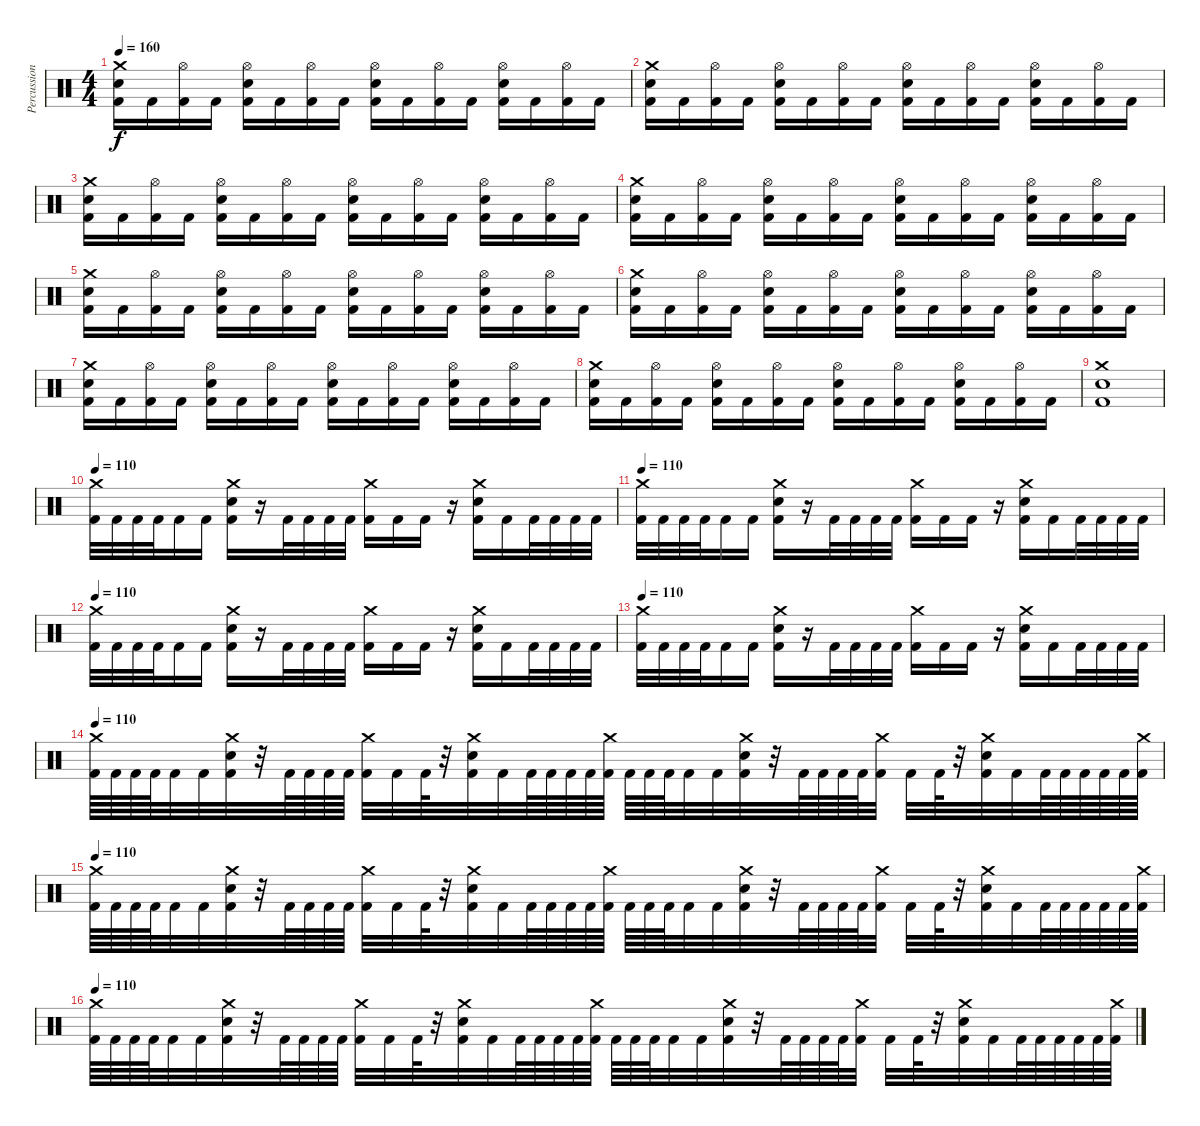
\track ("Percussion" "Percussion") {instrument percussion}
\staff {score}
\articulation defaults
\ts (4 4)
\tempo 160
\clef neutral
\ks c
("Crash medium (hit)" "Electric Snare (hit)" "Kick (hit) 2").16{dy f} "Kick (hit) 2".16 ("Hi-Hat (open)" "Kick (hit) 2").16 "Kick (hit) 2".16 ("Hi-Hat (open)" "Electric Snare (hit)" "Kick (hit) 2").16 "Kick (hit) 2".16 ("Hi-Hat (open)" "Kick (hit) 2").16 "Kick (hit) 2".16 ("Hi-Hat (open)" "Electric Snare (hit)" "Kick (hit) 2").16 "Kick (hit) 2".16 ("Hi-Hat (open)" "Kick (hit) 2").16 "Kick (hit) 2".16 ("Hi-Hat (open)" "Electric Snare (hit)" "Kick (hit) 2").16 "Kick (hit) 2".16 ("Hi-Hat (open)" "Kick (hit) 2").16 "Kick (hit) 2".16 |
("Crash medium (hit)" "Electric Snare (hit)" "Kick (hit) 2").16 "Kick (hit) 2".16 ("Hi-Hat (open)" "Kick (hit) 2").16 "Kick (hit) 2".16 ("Hi-Hat (open)" "Electric Snare (hit)" "Kick (hit) 2").16 "Kick (hit) 2".16 ("Hi-Hat (open)" "Kick (hit) 2").16 "Kick (hit) 2".16 ("Hi-Hat (open)" "Electric Snare (hit)" "Kick (hit) 2").16 "Kick (hit) 2".16 ("Hi-Hat (open)" "Kick (hit) 2").16 "Kick (hit) 2".16 ("Hi-Hat (open)" "Electric Snare (hit)" "Kick (hit) 2").16 "Kick (hit) 2".16 ("Hi-Hat (open)" "Kick (hit) 2").16 "Kick (hit) 2".16 |
("Crash medium (hit)" "Electric Snare (hit)" "Kick (hit) 2").16 "Kick (hit) 2".16 ("Hi-Hat (open)" "Kick (hit) 2").16 "Kick (hit) 2".16 ("Hi-Hat (open)" "Electric Snare (hit)" "Kick (hit) 2").16 "Kick (hit) 2".16 ("Hi-Hat (open)" "Kick (hit) 2").16 "Kick (hit) 2".16 ("Hi-Hat (open)" "Electric Snare (hit)" "Kick (hit) 2").16 "Kick (hit) 2".16 ("Hi-Hat (open)" "Kick (hit) 2").16 "Kick (hit) 2".16 ("Hi-Hat (open)" "Electric Snare (hit)" "Kick (hit) 2").16 "Kick (hit) 2".16 ("Hi-Hat (open)" "Kick (hit) 2").16 "Kick (hit) 2".16 |
("Crash medium (hit)" "Electric Snare (hit)" "Kick (hit) 2").16 "Kick (hit) 2".16 ("Hi-Hat (open)" "Kick (hit) 2").16 "Kick (hit) 2".16 ("Hi-Hat (open)" "Electric Snare (hit)" "Kick (hit) 2").16 "Kick (hit) 2".16 ("Hi-Hat (open)" "Kick (hit) 2").16 "Kick (hit) 2".16 ("Hi-Hat (open)" "Electric Snare (hit)" "Kick (hit) 2").16 "Kick (hit) 2".16 ("Hi-Hat (open)" "Kick (hit) 2").16 "Kick (hit) 2".16 ("Hi-Hat (open)" "Electric Snare (hit)" "Kick (hit) 2").16 "Kick (hit) 2".16 ("Hi-Hat (open)" "Kick (hit) 2").16 "Kick (hit) 2".16 |
("Crash medium (hit)" "Electric Snare (hit)" "Kick (hit) 2").16 "Kick (hit) 2".16 ("Hi-Hat (open)" "Kick (hit) 2").16 "Kick (hit) 2".16 ("Hi-Hat (open)" "Electric Snare (hit)" "Kick (hit) 2").16 "Kick (hit) 2".16 ("Hi-Hat (open)" "Kick (hit) 2").16 "Kick (hit) 2".16 ("Hi-Hat (open)" "Electric Snare (hit)" "Kick (hit) 2").16 "Kick (hit) 2".16 ("Hi-Hat (open)" "Kick (hit) 2").16 "Kick (hit) 2".16 ("Hi-Hat (open)" "Electric Snare (hit)" "Kick (hit) 2").16 "Kick (hit) 2".16 ("Hi-Hat (open)" "Kick (hit) 2").16 "Kick (hit) 2".16 |
("Crash medium (hit)" "Electric Snare (hit)" "Kick (hit) 2").16 "Kick (hit) 2".16 ("Hi-Hat (open)" "Kick (hit) 2").16 "Kick (hit) 2".16 ("Hi-Hat (open)" "Electric Snare (hit)" "Kick (hit) 2").16 "Kick (hit) 2".16 ("Hi-Hat (open)" "Kick (hit) 2").16 "Kick (hit) 2".16 ("Hi-Hat (open)" "Electric Snare (hit)" "Kick (hit) 2").16 "Kick (hit) 2".16 ("Hi-Hat (open)" "Kick (hit) 2").16 "Kick (hit) 2".16 ("Hi-Hat (open)" "Electric Snare (hit)" "Kick (hit) 2").16 "Kick (hit) 2".16 ("Hi-Hat (open)" "Kick (hit) 2").16 "Kick (hit) 2".16 |
("Crash medium (hit)" "Electric Snare (hit)" "Kick (hit) 2").16 "Kick (hit) 2".16 ("Hi-Hat (open)" "Kick (hit) 2").16 "Kick (hit) 2".16 ("Hi-Hat (open)" "Electric Snare (hit)" "Kick (hit) 2").16 "Kick (hit) 2".16 ("Hi-Hat (open)" "Kick (hit) 2").16 "Kick (hit) 2".16 ("Hi-Hat (open)" "Electric Snare (hit)" "Kick (hit) 2").16 "Kick (hit) 2".16 ("Hi-Hat (open)" "Kick (hit) 2").16 "Kick (hit) 2".16 ("Hi-Hat (open)" "Electric Snare (hit)" "Kick (hit) 2").16 "Kick (hit) 2".16 ("Hi-Hat (open)" "Kick (hit) 2").16 "Kick (hit) 2".16 |
("Crash medium (hit)" "Electric Snare (hit)" "Kick (hit) 2").16 "Kick (hit) 2".16 ("Hi-Hat (open)" "Kick (hit) 2").16 "Kick (hit) 2".16 ("Hi-Hat (open)" "Electric Snare (hit)" "Kick (hit) 2").16 "Kick (hit) 2".16 ("Hi-Hat (open)" "Kick (hit) 2").16 "Kick (hit) 2".16 ("Hi-Hat (open)" "Electric Snare (hit)" "Kick (hit) 2").16 "Kick (hit) 2".16 ("Hi-Hat (open)" "Kick (hit) 2").16 "Kick (hit) 2".16 ("Hi-Hat (open)" "Electric Snare (hit)" "Kick (hit) 2").16 "Kick (hit) 2".16 ("Hi-Hat (open)" "Kick (hit) 2").16 "Kick (hit) 2".16 |
("Crash medium (hit)" "Electric Snare (hit)" "Kick (hit) 2").1 |
\tempo 110
("Crash medium (hit)" "Kick (hit) 2").32 "Kick (hit) 2".32 "Kick (hit) 2".32 "Kick (hit) 2".32 "Kick (hit) 2".16 "Kick (hit) 2".16 ("Crash medium (hit)" "Electric Snare (hit)" "Kick (hit) 2").16 r.16 "Kick (hit) 2".32 "Kick (hit) 2".32 "Kick (hit) 2".32 "Kick (hit) 2".32 ("Crash medium (hit)" "Kick (hit) 2").16 "Kick (hit) 2".16 "Kick (hit) 2".16 r.16 ("Crash medium (hit)" "Electric Snare (hit)" "Kick (hit) 2").16 "Kick (hit) 2".16 "Kick (hit) 2".32 "Kick (hit) 2".32 "Kick (hit) 2".32 "Kick (hit) 2".32 |
\tempo 110
("Crash medium (hit)" "Kick (hit) 2").32 "Kick (hit) 2".32 "Kick (hit) 2".32 "Kick (hit) 2".32 "Kick (hit) 2".16 "Kick (hit) 2".16 ("Crash medium (hit)" "Electric Snare (hit)" "Kick (hit) 2").16 r.16 "Kick (hit) 2".32 "Kick (hit) 2".32 "Kick (hit) 2".32 "Kick (hit) 2".32 ("Crash medium (hit)" "Kick (hit) 2").16 "Kick (hit) 2".16 "Kick (hit) 2".16 r.16 ("Crash medium (hit)" "Electric Snare (hit)" "Kick (hit) 2").16 "Kick (hit) 2".16 "Kick (hit) 2".32 "Kick (hit) 2".32 "Kick (hit) 2".32 "Kick (hit) 2".32 |
\tempo 110
("Crash medium (hit)" "Kick (hit) 2").32 "Kick (hit) 2".32 "Kick (hit) 2".32 "Kick (hit) 2".32 "Kick (hit) 2".16 "Kick (hit) 2".16 ("Crash medium (hit)" "Electric Snare (hit)" "Kick (hit) 2").16 r.16 "Kick (hit) 2".32 "Kick (hit) 2".32 "Kick (hit) 2".32 "Kick (hit) 2".32 ("Crash medium (hit)" "Kick (hit) 2").16 "Kick (hit) 2".16 "Kick (hit) 2".16 r.16 ("Crash medium (hit)" "Electric Snare (hit)" "Kick (hit) 2").16 "Kick (hit) 2".16 "Kick (hit) 2".32 "Kick (hit) 2".32 "Kick (hit) 2".32 "Kick (hit) 2".32 |
\tempo 110
("Crash medium (hit)" "Kick (hit) 2").32 "Kick (hit) 2".32 "Kick (hit) 2".32 "Kick (hit) 2".32 "Kick (hit) 2".16 "Kick (hit) 2".16 ("Crash medium (hit)" "Electric Snare (hit)" "Kick (hit) 2").16 r.16 "Kick (hit) 2".32 "Kick (hit) 2".32 "Kick (hit) 2".32 "Kick (hit) 2".32 ("Crash medium (hit)" "Kick (hit) 2").16 "Kick (hit) 2".16 "Kick (hit) 2".16 r.16 ("Crash medium (hit)" "Electric Snare (hit)" "Kick (hit) 2").16 "Kick (hit) 2".16 "Kick (hit) 2".32 "Kick (hit) 2".32 "Kick (hit) 2".32 "Kick (hit) 2".32 |
\tempo 110
("Crash medium (hit)" "Kick (hit) 2").64 "Kick (hit) 2".64 "Kick (hit) 2".64 "Kick (hit) 2".64 "Kick (hit) 2".32 "Kick (hit) 2".32 ("Crash medium (hit)" "Electric Snare (hit)" "Kick (hit) 2").32 r.32 "Kick (hit) 2".64 "Kick (hit) 2".64 "Kick (hit) 2".64 "Kick (hit) 2".64 ("Crash medium (hit)" "Kick (hit) 2").32 "Kick (hit) 2".32 "Kick (hit) 2".64 r.32 ("Crash medium (hit)" "Electric Snare (hit)" "Kick (hit) 2").32 "Kick (hit) 2".32 "Kick (hit) 2".64 "Kick (hit) 2".64 "Kick (hit) 2".64 "Kick (hit) 2".64 ("Crash medium (hit)" "Kick (hit) 2").64 "Kick (hit) 2".64 "Kick (hit) 2".64 "Kick (hit) 2".64 "Kick (hit) 2".32 "Kick (hit) 2".32 ("Crash medium (hit)" "Electric Snare (hit)" "Kick (hit) 2").32 r.32 "Kick (hit) 2".64 "Kick (hit) 2".64 "Kick (hit) 2".64 "Kick (hit) 2".64 ("Crash medium (hit)" "Kick (hit) 2").32 "Kick (hit) 2".32 "Kick (hit) 2".64 r.32 ("Crash medium (hit)" "Electric Snare (hit)" "Kick (hit) 2").32 "Kick (hit) 2".32 "Kick (hit) 2".64 "Kick (hit) 2".64 "Kick (hit) 2".64 "Kick (hit) 2".64 "Kick (hit) 2".64 ("Crash medium (hit)" "Kick (hit) 2").64 |
\tempo 110
("Crash medium (hit)" "Kick (hit) 2").64 "Kick (hit) 2".64 "Kick (hit) 2".64 "Kick (hit) 2".64 "Kick (hit) 2".32 "Kick (hit) 2".32 ("Crash medium (hit)" "Electric Snare (hit)" "Kick (hit) 2").32 r.32 "Kick (hit) 2".64 "Kick (hit) 2".64 "Kick (hit) 2".64 "Kick (hit) 2".64 ("Crash medium (hit)" "Kick (hit) 2").32 "Kick (hit) 2".32 "Kick (hit) 2".64 r.32 ("Crash medium (hit)" "Electric Snare (hit)" "Kick (hit) 2").32 "Kick (hit) 2".32 "Kick (hit) 2".64 "Kick (hit) 2".64 "Kick (hit) 2".64 "Kick (hit) 2".64 ("Crash medium (hit)" "Kick (hit) 2").64 "Kick (hit) 2".64 "Kick (hit) 2".64 "Kick (hit) 2".64 "Kick (hit) 2".32 "Kick (hit) 2".32 ("Crash medium (hit)" "Electric Snare (hit)" "Kick (hit) 2").32 r.32 "Kick (hit) 2".64 "Kick (hit) 2".64 "Kick (hit) 2".64 "Kick (hit) 2".64 ("Crash medium (hit)" "Kick (hit) 2").32 "Kick (hit) 2".32 "Kick (hit) 2".64 r.32 ("Crash medium (hit)" "Electric Snare (hit)" "Kick (hit) 2").32 "Kick (hit) 2".32 "Kick (hit) 2".64 "Kick (hit) 2".64 "Kick (hit) 2".64 "Kick (hit) 2".64 "Kick (hit) 2".64 ("Crash medium (hit)" "Kick (hit) 2").64 |
\tempo 110
("Crash medium (hit)" "Kick (hit) 2").64 "Kick (hit) 2".64 "Kick (hit) 2".64 "Kick (hit) 2".64 "Kick (hit) 2".32 "Kick (hit) 2".32 ("Crash medium (hit)" "Electric Snare (hit)" "Kick (hit) 2").32 r.32 "Kick (hit) 2".64 "Kick (hit) 2".64 "Kick (hit) 2".64 "Kick (hit) 2".64 ("Crash medium (hit)" "Kick (hit) 2").32 "Kick (hit) 2".32 "Kick (hit) 2".64 r.32 ("Crash medium (hit)" "Electric Snare (hit)" "Kick (hit) 2").32 "Kick (hit) 2".32 "Kick (hit) 2".64 "Kick (hit) 2".64 "Kick (hit) 2".64 "Kick (hit) 2".64 ("Crash medium (hit)" "Kick (hit) 2").64 "Kick (hit) 2".64 "Kick (hit) 2".64 "Kick (hit) 2".64 "Kick (hit) 2".32 "Kick (hit) 2".32 ("Crash medium (hit)" "Electric Snare (hit)" "Kick (hit) 2").32 r.32 "Kick (hit) 2".64 "Kick (hit) 2".64 "Kick (hit) 2".64 "Kick (hit) 2".64 ("Crash medium (hit)" "Kick (hit) 2").32 "Kick (hit) 2".32 "Kick (hit) 2".64 r.32 ("Crash medium (hit)" "Electric Snare (hit)" "Kick (hit) 2").32 "Kick (hit) 2".32 "Kick (hit) 2".64 "Kick (hit) 2".64 "Kick (hit) 2".64 "Kick (hit) 2".64 "Kick (hit) 2".64 ("Crash medium (hit)" "Kick (hit) 2").64
